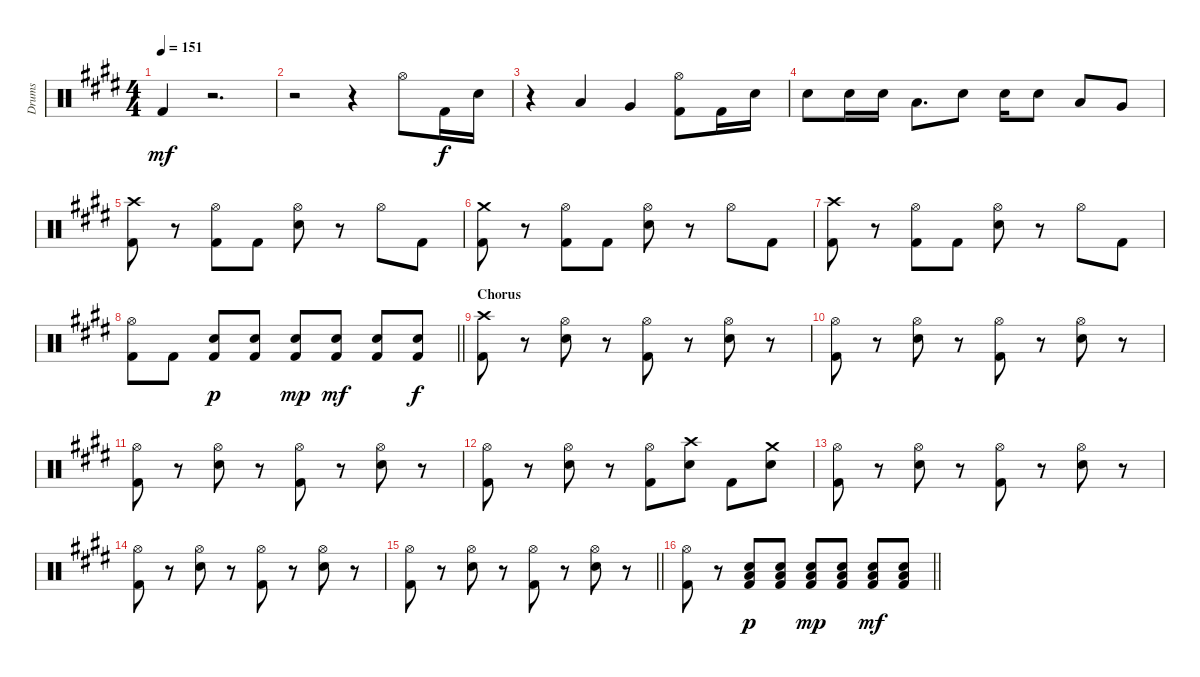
\track ("Drums" "Drums") {instrument percussion}
\staff {score}
\articulation defaults
\ts (4 4)
\tempo 151
\clef neutral
\ks e "Kick (hit) 2".4{dy mf}
r.2{d} |
r.2 r.4 "Hi-Hat (open)".8 "Kick (hit) 2".16{dy f} "Electric Snare (hit)".16 |
r.4 "Low Tom (hit)".4 "Very Low Tom (hit)".4 ("Hi-Hat (open)" "Kick (hit) 2").8 "Kick (hit) 2".16 "Electric Snare (hit)".16 |
"Electric Snare (hit)".8 "Electric Snare (hit)".16 "Electric Snare (hit)".16 "Low Tom (hit)".8{d} "Electric Snare (hit)".8 "Electric Snare (hit)".16 "Electric Snare (hit)".8 "Low Tom (hit)".8 "Very Low Tom (hit)".8 |
("Crash high (hit)" "Kick (hit) 2").8 r.8 ("Hi-Hat (open)" "Kick (hit) 2").8 "Kick (hit) 2".8 ("Hi-Hat (open)" "Electric Snare (hit)").8 r.8 "Hi-Hat (open)".8 "Kick (hit) 2".8 |
("Crash medium (hit)" "Kick (hit) 2").8 r.8 ("Hi-Hat (open)" "Kick (hit) 2").8 "Kick (hit) 2".8 ("Hi-Hat (open)" "Electric Snare (hit)").8 r.8 "Hi-Hat (open)".8 "Kick (hit) 2".8 |
("Crash high (hit)" "Kick (hit) 2").8 r.8 ("Hi-Hat (open)" "Kick (hit) 2").8 "Kick (hit) 2".8 ("Hi-Hat (open)" "Electric Snare (hit)").8 r.8 "Hi-Hat (open)".8 "Kick (hit) 2".8 |
\barLineRight lightlight
("Hi-Hat (open)" "Kick (hit) 2").8 "Kick (hit) 2".8 ("Electric Snare (hit)" "Kick (hit) 2").8{dy p} ("Electric Snare (hit)" "Kick (hit) 2").8 ("Electric Snare (hit)" "Kick (hit) 2").8{dy mp} ("Electric Snare (hit)" "Kick (hit) 2").8{dy mf} ("Electric Snare (hit)" "Kick (hit) 2").8 ("Electric Snare (hit)" "Kick (hit) 2").8{dy f} |
\section ("" "Chorus")
("Crash high (hit)" "Kick (hit) 2").8 r.8 ("Hi-Hat (open)" "Electric Snare (hit)").8 r.8 ("Hi-Hat (open)" "Kick (hit) 2").8 r.8 ("Hi-Hat (open)" "Electric Snare (hit)").8 r.8 |
("Hi-Hat (open)" "Kick (hit) 2").8 r.8 ("Hi-Hat (open)" "Electric Snare (hit)").8 r.8 ("Hi-Hat (open)" "Kick (hit) 2").8 r.8 ("Hi-Hat (open)" "Electric Snare (hit)").8 r.8 |
("Hi-Hat (open)" "Kick (hit) 2").8 r.8 ("Hi-Hat (open)" "Electric Snare (hit)").8 r.8 ("Hi-Hat (open)" "Kick (hit) 2").8 r.8 ("Hi-Hat (open)" "Electric Snare (hit)").8 r.8 |
("Hi-Hat (open)" "Kick (hit) 2").8 r.8 ("Hi-Hat (open)" "Electric Snare (hit)").8 r.8 ("Hi-Hat (open)" "Kick (hit) 2").8 ("Crash high (hit)" "Electric Snare (hit)").8 "Kick (hit) 2".8 ("Crash medium (hit)" "Electric Snare (hit)").8 |
("Hi-Hat (open)" "Kick (hit) 2").8 r.8 ("Hi-Hat (open)" "Electric Snare (hit)").8 r.8 ("Hi-Hat (open)" "Kick (hit) 2").8 r.8 ("Hi-Hat (open)" "Electric Snare (hit)").8 r.8 |
("Hi-Hat (open)" "Kick (hit) 2").8 r.8 ("Hi-Hat (open)" "Electric Snare (hit)").8 r.8 ("Hi-Hat (open)" "Kick (hit) 2").8 r.8 ("Hi-Hat (open)" "Electric Snare (hit)").8 r.8 |
\barLineRight lightlight
("Hi-Hat (open)" "Kick (hit) 2").8 r.8 ("Hi-Hat (open)" "Electric Snare (hit)").8 r.8 ("Hi-Hat (open)" "Kick (hit) 2").8 r.8 ("Hi-Hat (open)" "Electric Snare (hit)").8 r.8 |
\barLineRight lightlight
("Hi-Hat (open)" "Kick (hit) 2").8 r.8 ("Electric Snare (hit)" "Low Tom (hit)" "Kick (hit) 2").8{dy p} ("Electric Snare (hit)" "Low Tom (hit)" "Kick (hit) 2").8 ("Electric Snare (hit)" "Low Tom (hit)" "Kick (hit) 2").8{dy mp} ("Electric Snare (hit)" "Low Tom (hit)" "Kick (hit) 2").8 ("Electric Snare (hit)" "Low Tom (hit)" "Kick (hit) 2").8{dy mf} ("Electric Snare (hit)" "Low Tom (hit)" "Kick (hit) 2").8
